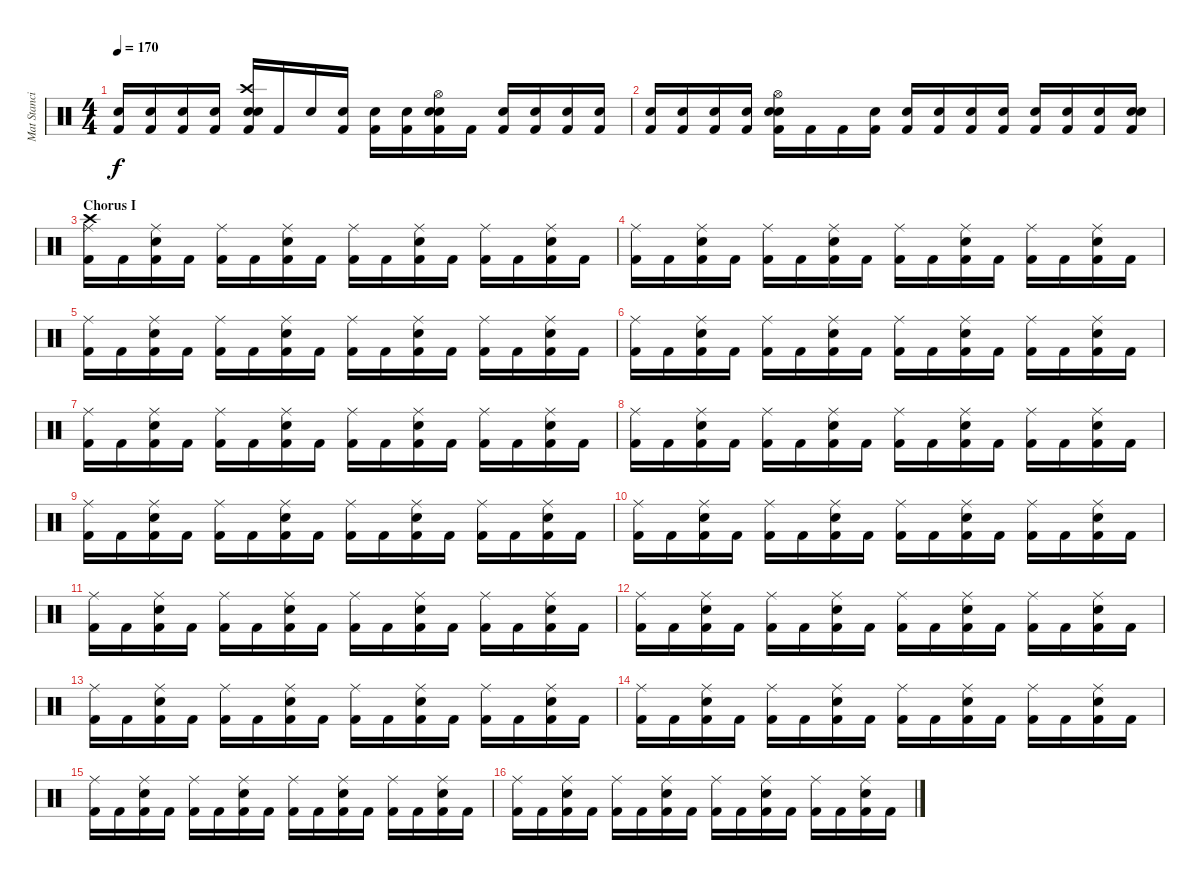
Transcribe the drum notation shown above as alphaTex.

\track ("Mat Stancioiu" "Mat Stanci") {instrument percussion}
\staff {score}
\articulation defaults
\ts (4 4)
\tempo 170
\clef neutral
\ks c
("Electric Snare (hit)" "Kick (hit) 2").16{dy f} ("Electric Snare (hit)" "Kick (hit) 2").16 ("Electric Snare (hit)" "Kick (hit) 2").16 ("Electric Snare (hit)" "Kick (hit) 2").16 ("Electric Snare (hit)" "Kick (hit) 2" "Crash high (hit)" "Snare (hit)").16 "Kick (hit) 2".16 "Electric Snare (hit)".16 ("Electric Snare (hit)" "Kick (hit) 2").16 ("Electric Snare (hit)" "Kick (hit) 2").16 ("Electric Snare (hit)" "Kick (hit) 2").16 ("Electric Snare (hit)" "Kick (hit) 2" "Hi-Hat (open)" "Snare (hit)").16 "Kick (hit) 2".16 ("Electric Snare (hit)" "Kick (hit) 2").16 ("Electric Snare (hit)" "Kick (hit) 2").16 ("Electric Snare (hit)" "Kick (hit) 2").16 ("Electric Snare (hit)" "Kick (hit) 2").16 |
("Electric Snare (hit)" "Kick (hit) 2").16 ("Electric Snare (hit)" "Kick (hit) 2").16 ("Electric Snare (hit)" "Kick (hit) 2").16 ("Electric Snare (hit)" "Kick (hit) 2").16 ("Electric Snare (hit)" "Kick (hit) 2" "Hi-Hat (open)" "Snare (hit)").16 "Kick (hit) 2".16 "Kick (hit) 2".16 ("Electric Snare (hit)" "Kick (hit) 2").16 ("Electric Snare (hit)" "Kick (hit) 2").16 ("Electric Snare (hit)" "Kick (hit) 2").16 ("Electric Snare (hit)" "Kick (hit) 2").16 ("Electric Snare (hit)" "Kick (hit) 2").16 ("Electric Snare (hit)" "Kick (hit) 2").16 ("Electric Snare (hit)" "Kick (hit) 2").16 ("Electric Snare (hit)" "Kick (hit) 2").16 ("Electric Snare (hit)" "Kick (hit) 2" "Snare (hit)").16 |
\section ("" "Chorus I")
("Crash high (hit)" "Kick (hit) 2" "Ride (middle)").16 "Kick (hit) 2".16 ("Electric Snare (hit)" "Kick (hit) 2" "Ride (middle)").16 "Kick (hit) 2".16 ("Kick (hit) 2" "Ride (middle)").16 "Kick (hit) 2".16 ("Electric Snare (hit)" "Kick (hit) 2" "Ride (middle)").16 "Kick (hit) 2".16 ("Kick (hit) 2" "Ride (middle)").16 "Kick (hit) 2".16 ("Electric Snare (hit)" "Kick (hit) 2" "Ride (middle)").16 "Kick (hit) 2".16 ("Kick (hit) 2" "Ride (middle)").16 "Kick (hit) 2".16 ("Electric Snare (hit)" "Kick (hit) 2" "Ride (middle)").16 "Kick (hit) 2".16 |
("Kick (hit) 2" "Ride (middle)").16 "Kick (hit) 2".16 ("Electric Snare (hit)" "Kick (hit) 2" "Ride (middle)").16 "Kick (hit) 2".16 ("Kick (hit) 2" "Ride (middle)").16 "Kick (hit) 2".16 ("Electric Snare (hit)" "Kick (hit) 2" "Ride (middle)").16 "Kick (hit) 2".16 ("Kick (hit) 2" "Ride (middle)").16 "Kick (hit) 2".16 ("Electric Snare (hit)" "Kick (hit) 2" "Ride (middle)").16 "Kick (hit) 2".16 ("Kick (hit) 2" "Ride (middle)").16 "Kick (hit) 2".16 ("Electric Snare (hit)" "Kick (hit) 2" "Ride (middle)").16 "Kick (hit) 2".16 |
("Kick (hit) 2" "Ride (middle)").16 "Kick (hit) 2".16 ("Electric Snare (hit)" "Kick (hit) 2" "Ride (middle)").16 "Kick (hit) 2".16 ("Kick (hit) 2" "Ride (middle)").16 "Kick (hit) 2".16 ("Electric Snare (hit)" "Kick (hit) 2" "Ride (middle)").16 "Kick (hit) 2".16 ("Kick (hit) 2" "Ride (middle)").16 "Kick (hit) 2".16 ("Electric Snare (hit)" "Kick (hit) 2" "Ride (middle)").16 "Kick (hit) 2".16 ("Kick (hit) 2" "Ride (middle)").16 "Kick (hit) 2".16 ("Electric Snare (hit)" "Kick (hit) 2" "Ride (middle)").16 "Kick (hit) 2".16 |
("Kick (hit) 2" "Ride (middle)").16 "Kick (hit) 2".16 ("Electric Snare (hit)" "Kick (hit) 2" "Ride (middle)").16 "Kick (hit) 2".16 ("Kick (hit) 2" "Ride (middle)").16 "Kick (hit) 2".16 ("Electric Snare (hit)" "Kick (hit) 2" "Ride (middle)").16 "Kick (hit) 2".16 ("Kick (hit) 2" "Ride (middle)").16 "Kick (hit) 2".16 ("Electric Snare (hit)" "Kick (hit) 2" "Ride (middle)").16 "Kick (hit) 2".16 ("Kick (hit) 2" "Ride (middle)").16 "Kick (hit) 2".16 ("Electric Snare (hit)" "Kick (hit) 2" "Ride (middle)").16 "Kick (hit) 2".16 |
("Kick (hit) 2" "Ride (middle)").16 "Kick (hit) 2".16 ("Electric Snare (hit)" "Kick (hit) 2" "Ride (middle)").16 "Kick (hit) 2".16 ("Kick (hit) 2" "Ride (middle)").16 "Kick (hit) 2".16 ("Electric Snare (hit)" "Kick (hit) 2" "Ride (middle)").16 "Kick (hit) 2".16 ("Kick (hit) 2" "Ride (middle)").16 "Kick (hit) 2".16 ("Electric Snare (hit)" "Kick (hit) 2" "Ride (middle)").16 "Kick (hit) 2".16 ("Kick (hit) 2" "Ride (middle)").16 "Kick (hit) 2".16 ("Electric Snare (hit)" "Kick (hit) 2" "Ride (middle)").16 "Kick (hit) 2".16 |
("Kick (hit) 2" "Ride (middle)").16 "Kick (hit) 2".16 ("Electric Snare (hit)" "Kick (hit) 2" "Ride (middle)").16 "Kick (hit) 2".16 ("Kick (hit) 2" "Ride (middle)").16 "Kick (hit) 2".16 ("Electric Snare (hit)" "Kick (hit) 2" "Ride (middle)").16 "Kick (hit) 2".16 ("Kick (hit) 2" "Ride (middle)").16 "Kick (hit) 2".16 ("Electric Snare (hit)" "Kick (hit) 2" "Ride (middle)").16 "Kick (hit) 2".16 ("Kick (hit) 2" "Ride (middle)").16 "Kick (hit) 2".16 ("Electric Snare (hit)" "Kick (hit) 2" "Ride (middle)").16 "Kick (hit) 2".16 |
("Kick (hit) 2" "Ride (middle)").16 "Kick (hit) 2".16 ("Electric Snare (hit)" "Kick (hit) 2" "Ride (middle)").16 "Kick (hit) 2".16 ("Kick (hit) 2" "Ride (middle)").16 "Kick (hit) 2".16 ("Electric Snare (hit)" "Kick (hit) 2" "Ride (middle)").16 "Kick (hit) 2".16 ("Kick (hit) 2" "Ride (middle)").16 "Kick (hit) 2".16 ("Electric Snare (hit)" "Kick (hit) 2" "Ride (middle)").16 "Kick (hit) 2".16 ("Kick (hit) 2" "Ride (middle)").16 "Kick (hit) 2".16 ("Electric Snare (hit)" "Kick (hit) 2" "Ride (middle)").16 "Kick (hit) 2".16 |
("Kick (hit) 2" "Ride (middle)").16 "Kick (hit) 2".16 ("Electric Snare (hit)" "Kick (hit) 2" "Ride (middle)").16 "Kick (hit) 2".16 ("Kick (hit) 2" "Ride (middle)").16 "Kick (hit) 2".16 ("Electric Snare (hit)" "Kick (hit) 2" "Ride (middle)").16 "Kick (hit) 2".16 ("Kick (hit) 2" "Ride (middle)").16 "Kick (hit) 2".16 ("Electric Snare (hit)" "Kick (hit) 2" "Ride (middle)").16 "Kick (hit) 2".16 ("Kick (hit) 2" "Ride (middle)").16 "Kick (hit) 2".16 ("Electric Snare (hit)" "Kick (hit) 2" "Ride (middle)").16 "Kick (hit) 2".16 |
("Kick (hit) 2" "Ride (middle)").16 "Kick (hit) 2".16 ("Electric Snare (hit)" "Kick (hit) 2" "Ride (middle)").16 "Kick (hit) 2".16 ("Kick (hit) 2" "Ride (middle)").16 "Kick (hit) 2".16 ("Electric Snare (hit)" "Kick (hit) 2" "Ride (middle)").16 "Kick (hit) 2".16 ("Kick (hit) 2" "Ride (middle)").16 "Kick (hit) 2".16 ("Electric Snare (hit)" "Kick (hit) 2" "Ride (middle)").16 "Kick (hit) 2".16 ("Kick (hit) 2" "Ride (middle)").16 "Kick (hit) 2".16 ("Electric Snare (hit)" "Kick (hit) 2" "Ride (middle)").16 "Kick (hit) 2".16 |
("Kick (hit) 2" "Ride (middle)").16 "Kick (hit) 2".16 ("Electric Snare (hit)" "Kick (hit) 2" "Ride (middle)").16 "Kick (hit) 2".16 ("Kick (hit) 2" "Ride (middle)").16 "Kick (hit) 2".16 ("Electric Snare (hit)" "Kick (hit) 2" "Ride (middle)").16 "Kick (hit) 2".16 ("Kick (hit) 2" "Ride (middle)").16 "Kick (hit) 2".16 ("Electric Snare (hit)" "Kick (hit) 2" "Ride (middle)").16 "Kick (hit) 2".16 ("Kick (hit) 2" "Ride (middle)").16 "Kick (hit) 2".16 ("Electric Snare (hit)" "Kick (hit) 2" "Ride (middle)").16 "Kick (hit) 2".16 |
("Kick (hit) 2" "Ride (middle)").16 "Kick (hit) 2".16 ("Electric Snare (hit)" "Kick (hit) 2" "Ride (middle)").16 "Kick (hit) 2".16 ("Kick (hit) 2" "Ride (middle)").16 "Kick (hit) 2".16 ("Electric Snare (hit)" "Kick (hit) 2" "Ride (middle)").16 "Kick (hit) 2".16 ("Kick (hit) 2" "Ride (middle)").16 "Kick (hit) 2".16 ("Electric Snare (hit)" "Kick (hit) 2" "Ride (middle)").16 "Kick (hit) 2".16 ("Kick (hit) 2" "Ride (middle)").16 "Kick (hit) 2".16 ("Electric Snare (hit)" "Kick (hit) 2" "Ride (middle)").16 "Kick (hit) 2".16 |
("Kick (hit) 2" "Ride (middle)").16 "Kick (hit) 2".16 ("Electric Snare (hit)" "Kick (hit) 2" "Ride (middle)").16 "Kick (hit) 2".16 ("Kick (hit) 2" "Ride (middle)").16 "Kick (hit) 2".16 ("Electric Snare (hit)" "Kick (hit) 2" "Ride (middle)").16 "Kick (hit) 2".16 ("Kick (hit) 2" "Ride (middle)").16 "Kick (hit) 2".16 ("Electric Snare (hit)" "Kick (hit) 2" "Ride (middle)").16 "Kick (hit) 2".16 ("Kick (hit) 2" "Ride (middle)").16 "Kick (hit) 2".16 ("Electric Snare (hit)" "Kick (hit) 2" "Ride (middle)").16 "Kick (hit) 2".16 |
("Kick (hit) 2" "Ride (middle)").16 "Kick (hit) 2".16 ("Electric Snare (hit)" "Kick (hit) 2" "Ride (middle)").16 "Kick (hit) 2".16 ("Kick (hit) 2" "Ride (middle)").16 "Kick (hit) 2".16 ("Electric Snare (hit)" "Kick (hit) 2" "Ride (middle)").16 "Kick (hit) 2".16 ("Kick (hit) 2" "Ride (middle)").16 "Kick (hit) 2".16 ("Electric Snare (hit)" "Kick (hit) 2" "Ride (middle)").16 "Kick (hit) 2".16 ("Kick (hit) 2" "Ride (middle)").16 "Kick (hit) 2".16 ("Electric Snare (hit)" "Kick (hit) 2" "Ride (middle)").16 "Kick (hit) 2".16 |
("Kick (hit) 2" "Ride (middle)").16 "Kick (hit) 2".16 ("Electric Snare (hit)" "Kick (hit) 2" "Ride (middle)").16 "Kick (hit) 2".16 ("Kick (hit) 2" "Ride (middle)").16 "Kick (hit) 2".16 ("Electric Snare (hit)" "Kick (hit) 2" "Ride (middle)").16 "Kick (hit) 2".16 ("Kick (hit) 2" "Ride (middle)").16 "Kick (hit) 2".16 ("Electric Snare (hit)" "Kick (hit) 2" "Ride (middle)").16 "Kick (hit) 2".16 ("Kick (hit) 2" "Ride (middle)").16 "Kick (hit) 2".16 ("Electric Snare (hit)" "Kick (hit) 2" "Ride (middle)").16 "Kick (hit) 2".16
